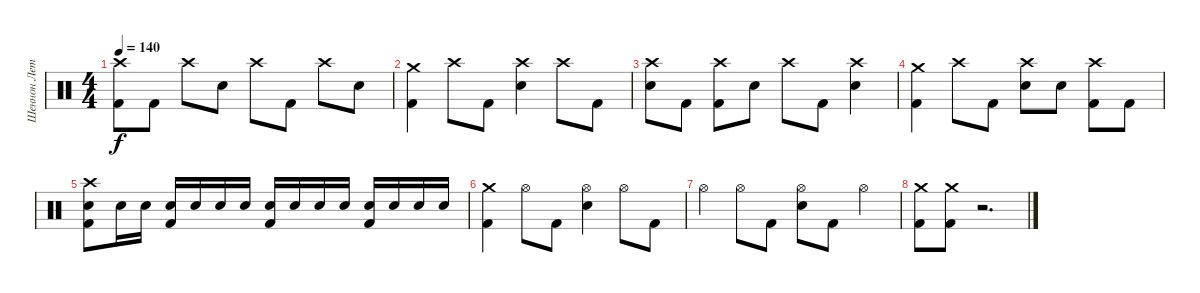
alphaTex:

\track ("Шеннон Лето" "Шеннон Лет") {instrument percussion}
\staff {score}
\articulation defaults
\ts (4 4)
\tempo 140
\clef neutral
\ks c
("Crash high (hit)" "Kick (hit) 2").8{dy f} "Kick (hit) 2".8 "Crash high (hit)".8 "Electric Snare (hit)".8 "Crash high (hit)".8 "Kick (hit) 2".8 "Crash high (hit)".8 "Electric Snare (hit)".8 |
("Crash medium (hit)" "Kick (hit) 2").4 "Crash high (hit)".8 "Kick (hit) 2".8 ("Crash high (hit)" "Electric Snare (hit)").4 "Crash high (hit)".8 "Kick (hit) 2".8 |
("Crash high (hit)" "Electric Snare (hit)").8 "Kick (hit) 2".8 ("Crash high (hit)" "Kick (hit) 2").8 "Electric Snare (hit)".8 "Crash high (hit)".8 "Kick (hit) 2".8 ("Crash high (hit)" "Electric Snare (hit)").4 |
("Crash medium (hit)" "Kick (hit) 2").4 "Crash high (hit)".8 "Kick (hit) 2".8 ("Crash high (hit)" "Electric Snare (hit)").8 "Electric Snare (hit)".8 ("Crash high (hit)" "Kick (hit) 2").8 "Kick (hit) 2".8 |
("Crash high (hit)" "Electric Snare (hit)" "Kick (hit) 2").8 "Electric Snare (hit)".16 "Electric Snare (hit)".16 ("Electric Snare (hit)" "Kick (hit) 2").16 "Electric Snare (hit)".16 "Electric Snare (hit)".16 "Electric Snare (hit)".16 ("Electric Snare (hit)" "Kick (hit) 2").16 "Electric Snare (hit)".16 "Electric Snare (hit)".16 "Electric Snare (hit)".16 ("Electric Snare (hit)" "Kick (hit) 2").16 "Electric Snare (hit)".16 "Electric Snare (hit)".16 "Electric Snare (hit)".16 |
("Crash medium (hit)" "Kick (hit) 2").4 "Hi-Hat (open)".8 "Kick (hit) 2".8 ("Hi-Hat (open)" "Electric Snare (hit)").4 "Hi-Hat (open)".8 "Kick (hit) 2".8 |
"Hi-Hat (open)".4 "Hi-Hat (open)".8 "Kick (hit) 2".8 ("Hi-Hat (open)" "Electric Snare (hit)").8 "Kick (hit) 2".8 "Hi-Hat (open)".4 |
("Crash medium (hit)" "Kick (hit) 2").8 ("Crash medium (hit)" "Kick (hit) 2").8 r.2{d}
